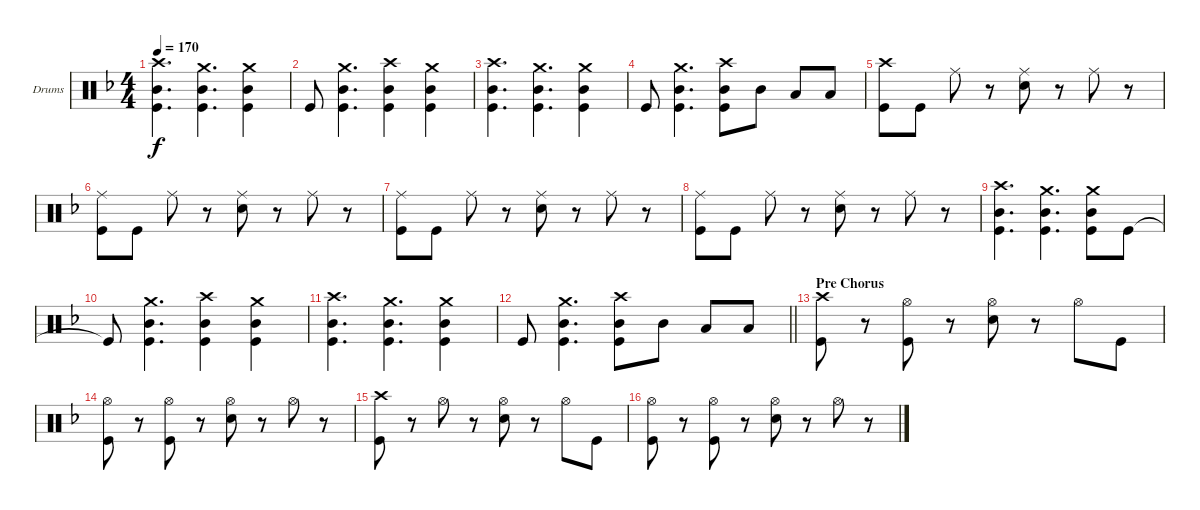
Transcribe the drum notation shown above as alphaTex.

\bracketExtendMode groupsimilarinstruments
\firstSystemTrackNameOrientation horizontal
\otherSystemsTrackNameOrientation horizontal
\track ("Drumkit" "Drums") {instrument percussion}
\staff {score}
\articulation defaults
\ts (4 4)
\tempo 170
\clef neutral
\scale
0.326154
\ks dminor
("Crash high (hit)" "Mid Tom (hit)" "Kick (hit)").4{d dy f} ("Crash medium (hit)" "Mid Tom (hit)" "Kick (hit)").4{d} ("Crash medium (hit)" "Mid Tom (hit)" "Kick (hit)").4 |
\scale
0.366154 "Kick (hit)".8 ("Crash medium (hit)" "Mid Tom (hit)" "Kick (hit)").4{d} ("Crash high (hit)" "Mid Tom (hit)" "Kick (hit)").4 ("Crash medium (hit)" "Mid Tom (hit)" "Kick (hit)").4 |
\scale
0.261728 ("Crash high (hit)" "Mid Tom (hit)" "Kick (hit)").4{d} ("Crash medium (hit)" "Mid Tom (hit)" "Kick (hit)").4{d} ("Crash medium (hit)" "Mid Tom (hit)" "Kick (hit)").4 |
\scale
0.34321 "Kick (hit)".8 ("Crash medium (hit)" "Mid Tom (hit)" "Kick (hit)").4{d} ("Crash high (hit)" "Mid Tom (hit)" "Kick (hit)").8 "Mid Tom (hit)".8 "Low Tom (hit)".8 "Low Tom (hit)".8 |
\scale
0.395062 ("Crash high (hit)" "Kick (hit)").8 "Kick (hit)".8 "Ride (middle)".8 r.8 ("Ride (middle)" "Snare (hit) 2").8 r.8 "Ride (middle)".8 r.8 |
\scale
0.333333 ("Ride (middle)" "Kick (hit)").8 "Kick (hit)".8 "Ride (middle)".8 r.8 ("Ride (middle)" "Snare (hit) 2").8 r.8 "Ride (middle)".8 r.8 |
\scale
0.333333 ("Ride (middle)" "Kick (hit)").8 "Kick (hit)".8 "Ride (middle)".8 r.8 ("Ride (middle)" "Snare (hit) 2").8 r.8 "Ride (middle)".8 r.8 |
\scale
0.333333 ("Ride (middle)" "Kick (hit)").8 "Kick (hit)".8 "Ride (middle)".8 r.8 ("Ride (middle)" "Snare (hit) 2").8 r.8 "Ride (middle)".8 r.8 |
\scale
0.344023 ("Crash high (hit)" "Mid Tom (hit)" "Kick (hit)").4{d} ("Crash medium (hit)" "Mid Tom (hit)" "Kick (hit)").4{d} ("Crash medium (hit)" "Mid Tom (hit)" "Kick (hit)").8 "Kick (hit)".8 |
\scale
0.346939 "Kick (hit)"{t}.8 ("Crash medium (hit)" "Mid Tom (hit)" "Kick (hit)").4{d} ("Crash high (hit)" "Mid Tom (hit)" "Kick (hit)").4 ("Crash medium (hit)" "Mid Tom (hit)" "Kick (hit)").4 |
\scale
0.309038 ("Crash high (hit)" "Mid Tom (hit)" "Kick (hit)").4{d} ("Crash medium (hit)" "Mid Tom (hit)" "Kick (hit)").4{d} ("Crash medium (hit)" "Mid Tom (hit)" "Kick (hit)").4 |
\scale
0.302832
\barLineRight lightlight "Kick (hit)".8
("Crash medium (hit)" "Mid Tom (hit)" "Kick (hit)").4{d} ("Crash high (hit)" "Mid Tom (hit)" "Kick (hit)").8 "Mid Tom (hit)".8 "Low Tom (hit)".8 "Low Tom (hit)".8 |
\section ("" "Pre Chorus")
\scale
0.348584 ("Crash high (hit)" "Kick (hit)").8 r.8 ("Hi-Hat (open)" "Kick (hit)").8 r.8 ("Hi-Hat (open)" "Snare (hit) 2").8 r.8 "Hi-Hat (open)".8 "Kick (hit)".8 |
\scale
0.348584 ("Hi-Hat (open)" "Kick (hit)").8 r.8 ("Hi-Hat (open)" "Kick (hit)").8 r.8 ("Hi-Hat (open)" "Snare (hit) 2").8 r.8 "Hi-Hat (open)".8 r.8 |
\scale
0.333333 ("Crash high (hit)" "Kick (hit)").8 r.8 "Hi-Hat (open)".8 r.8 ("Hi-Hat (open)" "Snare (hit) 2").8 r.8 "Hi-Hat (open)".8 "Kick (hit)".8 |
\scale
0.333333 ("Hi-Hat (open)" "Kick (hit)").8 r.8 ("Hi-Hat (open)" "Kick (hit)").8 r.8 ("Hi-Hat (open)" "Snare (hit) 2").8 r.8 "Hi-Hat (open)".8 r.8
